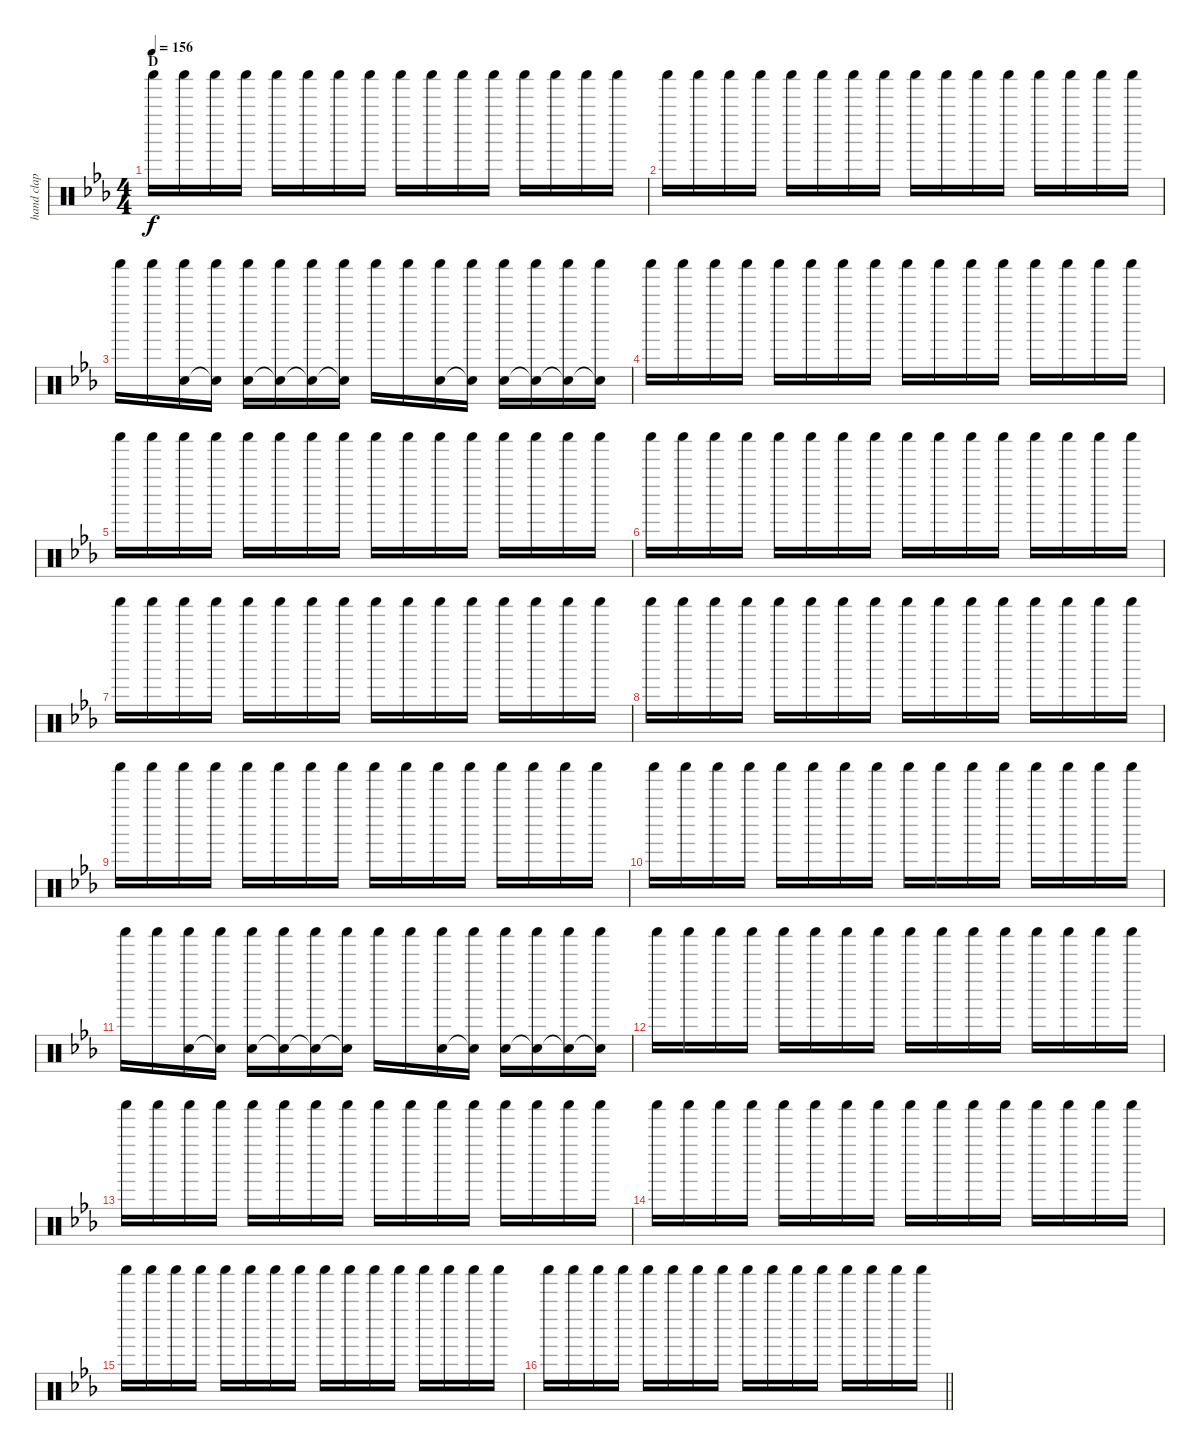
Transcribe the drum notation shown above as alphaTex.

\track ("hand clap + shaker" "hand clap ") {instrument percussion}
\staff {score}
\articulation defaults
\ts (4 4)
\section ("" "D")
\tempo 156
\clef neutral
\ks eb "Shaker (hit)".16{dy f} "Shaker (hit)".16 "Shaker (hit)".16 "Shaker (hit)".16 "Shaker (hit)".16 "Shaker (hit)".16 "Shaker (hit)".16 "Shaker (hit)".16 "Shaker (hit)".16 "Shaker (hit)".16 "Shaker (hit)".16 "Shaker (hit)".16 "Shaker (hit)".16 "Shaker (hit)".16 "Shaker (hit)".16 "Shaker (hit)".16
|
"Shaker (hit)".16 "Shaker (hit)".16 "Shaker (hit)".16 "Shaker (hit)".16 "Shaker (hit)".16 "Shaker (hit)".16 "Shaker (hit)".16 "Shaker (hit)".16 "Shaker (hit)".16 "Shaker (hit)".16 "Shaker (hit)".16 "Shaker (hit)".16 "Shaker (hit)".16 "Shaker (hit)".16 "Shaker (hit)".16 "Shaker (hit)".16 |
"Shaker (hit)".16 "Shaker (hit)".16 ("Shaker (hit)" "Hand Clap (hit)").16 ("Shaker (hit)" "Snare (hit)"{t}).16 ("Shaker (hit)" "Hand Clap (hit)").16 ("Shaker (hit)" "Snare (hit)"{t}).16 ("Shaker (hit)" "Snare (hit)"{t}).16 ("Shaker (hit)" "Snare (hit)"{t}).16 "Shaker (hit)".16 "Shaker (hit)".16 ("Shaker (hit)" "Hand Clap (hit)").16 ("Shaker (hit)" "Hand Clap (hit)"{t}).16 ("Shaker (hit)" "Hand Clap (hit)").16 ("Shaker (hit)" "Snare (hit)"{t}).16 ("Shaker (hit)" "Snare (hit)"{t}).16 ("Shaker (hit)" "Snare (hit)"{t}).16 |
"Shaker (hit)".16 "Shaker (hit)".16 "Shaker (hit)".16 "Shaker (hit)".16 "Shaker (hit)".16 "Shaker (hit)".16 "Shaker (hit)".16 "Shaker (hit)".16 "Shaker (hit)".16 "Shaker (hit)".16 "Shaker (hit)".16 "Shaker (hit)".16 "Shaker (hit)".16 "Shaker (hit)".16 "Shaker (hit)".16 "Shaker (hit)".16 |
"Shaker (hit)".16 "Shaker (hit)".16 "Shaker (hit)".16 "Shaker (hit)".16 "Shaker (hit)".16 "Shaker (hit)".16 "Shaker (hit)".16 "Shaker (hit)".16 "Shaker (hit)".16 "Shaker (hit)".16 "Shaker (hit)".16 "Shaker (hit)".16 "Shaker (hit)".16 "Shaker (hit)".16 "Shaker (hit)".16 "Shaker (hit)".16 |
"Shaker (hit)".16 "Shaker (hit)".16 "Shaker (hit)".16 "Shaker (hit)".16 "Shaker (hit)".16 "Shaker (hit)".16 "Shaker (hit)".16 "Shaker (hit)".16 "Shaker (hit)".16 "Shaker (hit)".16 "Shaker (hit)".16 "Shaker (hit)".16 "Shaker (hit)".16 "Shaker (hit)".16 "Shaker (hit)".16 "Shaker (hit)".16 |
"Shaker (hit)".16 "Shaker (hit)".16 "Shaker (hit)".16 "Shaker (hit)".16 "Shaker (hit)".16 "Shaker (hit)".16 "Shaker (hit)".16 "Shaker (hit)".16 "Shaker (hit)".16 "Shaker (hit)".16 "Shaker (hit)".16 "Shaker (hit)".16 "Shaker (hit)".16 "Shaker (hit)".16 "Shaker (hit)".16 "Shaker (hit)".16 |
"Shaker (hit)".16 "Shaker (hit)".16 "Shaker (hit)".16 "Shaker (hit)".16 "Shaker (hit)".16 "Shaker (hit)".16 "Shaker (hit)".16 "Shaker (hit)".16 "Shaker (hit)".16 "Shaker (hit)".16 "Shaker (hit)".16 "Shaker (hit)".16 "Shaker (hit)".16 "Shaker (hit)".16 "Shaker (hit)".16 "Shaker (hit)".16 |
"Shaker (hit)".16 "Shaker (hit)".16 "Shaker (hit)".16 "Shaker (hit)".16 "Shaker (hit)".16 "Shaker (hit)".16 "Shaker (hit)".16 "Shaker (hit)".16 "Shaker (hit)".16 "Shaker (hit)".16 "Shaker (hit)".16 "Shaker (hit)".16 "Shaker (hit)".16 "Shaker (hit)".16 "Shaker (hit)".16 "Shaker (hit)".16 |
"Shaker (hit)".16 "Shaker (hit)".16 "Shaker (hit)".16 "Shaker (hit)".16 "Shaker (hit)".16 "Shaker (hit)".16 "Shaker (hit)".16 "Shaker (hit)".16 "Shaker (hit)".16 "Shaker (hit)".16 "Shaker (hit)".16 "Shaker (hit)".16 "Shaker (hit)".16 "Shaker (hit)".16 "Shaker (hit)".16 "Shaker (hit)".16 |
"Shaker (hit)".16 "Shaker (hit)".16 ("Shaker (hit)" "Hand Clap (hit)").16 ("Shaker (hit)" "Snare (hit)"{t}).16 ("Shaker (hit)" "Hand Clap (hit)").16 ("Shaker (hit)" "Snare (hit)"{t}).16 ("Shaker (hit)" "Snare (hit)"{t}).16 ("Shaker (hit)" "Snare (hit)"{t}).16 "Shaker (hit)".16 "Shaker (hit)".16 ("Shaker (hit)" "Hand Clap (hit)").16 ("Shaker (hit)" "Hand Clap (hit)"{t}).16 ("Shaker (hit)" "Hand Clap (hit)").16 ("Shaker (hit)" "Snare (hit)"{t}).16 ("Shaker (hit)" "Snare (hit)"{t}).16 ("Shaker (hit)" "Snare (hit)"{t}).16 |
"Shaker (hit)".16 "Shaker (hit)".16 "Shaker (hit)".16 "Shaker (hit)".16 "Shaker (hit)".16 "Shaker (hit)".16 "Shaker (hit)".16 "Shaker (hit)".16 "Shaker (hit)".16 "Shaker (hit)".16 "Shaker (hit)".16 "Shaker (hit)".16 "Shaker (hit)".16 "Shaker (hit)".16 "Shaker (hit)".16 "Shaker (hit)".16 |
"Shaker (hit)".16 "Shaker (hit)".16 "Shaker (hit)".16 "Shaker (hit)".16 "Shaker (hit)".16 "Shaker (hit)".16 "Shaker (hit)".16 "Shaker (hit)".16 "Shaker (hit)".16 "Shaker (hit)".16 "Shaker (hit)".16 "Shaker (hit)".16 "Shaker (hit)".16 "Shaker (hit)".16 "Shaker (hit)".16 "Shaker (hit)".16 |
"Shaker (hit)".16 "Shaker (hit)".16 "Shaker (hit)".16 "Shaker (hit)".16 "Shaker (hit)".16 "Shaker (hit)".16 "Shaker (hit)".16 "Shaker (hit)".16 "Shaker (hit)".16 "Shaker (hit)".16 "Shaker (hit)".16 "Shaker (hit)".16 "Shaker (hit)".16 "Shaker (hit)".16 "Shaker (hit)".16 "Shaker (hit)".16 |
"Shaker (hit)".16 "Shaker (hit)".16 "Shaker (hit)".16 "Shaker (hit)".16 "Shaker (hit)".16 "Shaker (hit)".16 "Shaker (hit)".16 "Shaker (hit)".16 "Shaker (hit)".16 "Shaker (hit)".16 "Shaker (hit)".16 "Shaker (hit)".16 "Shaker (hit)".16 "Shaker (hit)".16 "Shaker (hit)".16 "Shaker (hit)".16 |
\barLineRight lightlight "Shaker (hit)".16 "Shaker (hit)".16 "Shaker (hit)".16 "Shaker (hit)".16 "Shaker (hit)".16 "Shaker (hit)".16 "Shaker (hit)".16 "Shaker (hit)".16 "Shaker (hit)".16 "Shaker (hit)".16 "Shaker (hit)".16 "Shaker (hit)".16 "Shaker (hit)".16 "Shaker (hit)".16 "Shaker (hit)".16 "Shaker (hit)".16
